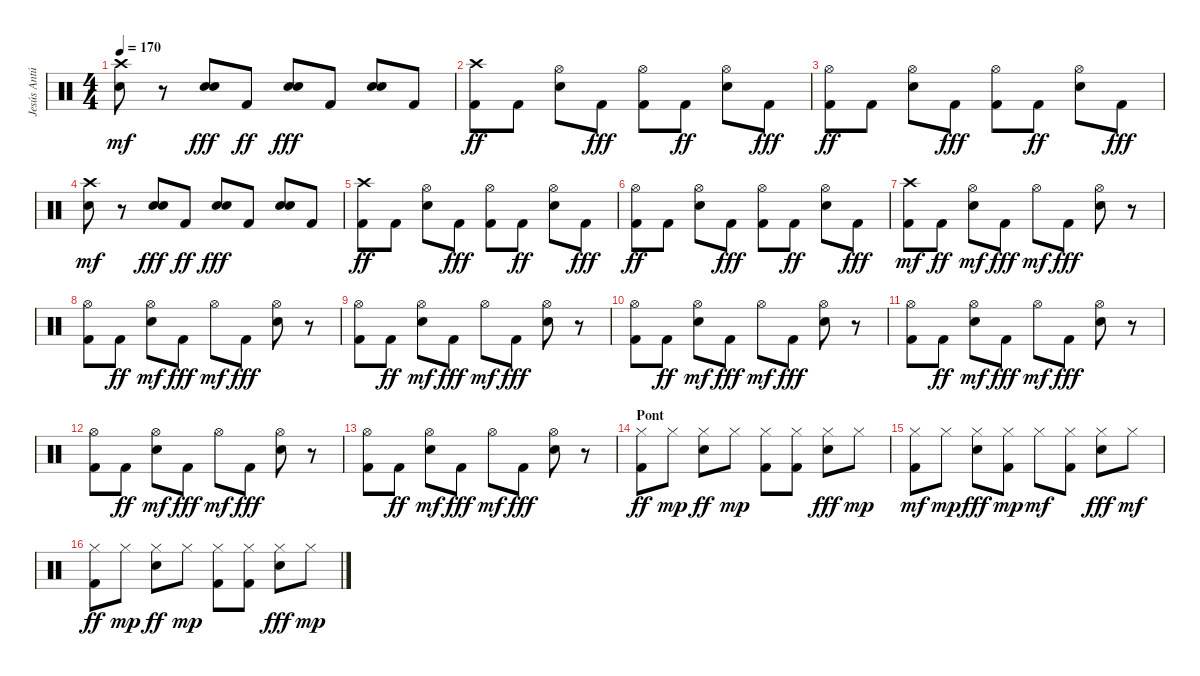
\track ("Jesús Antúnez (Bateria)" "Jesús Antú") {instrument percussion}
\staff {score}
\articulation defaults
\ts (4 4)
\tempo 170
\clef neutral
\ks c
("Electric Snare (hit)" "Crash high (hit)").8{dy mf} r.8 ("Electric Snare (hit)" "Electric Snare (hit)").8{dy fff} "Kick (hit) 2".8{dy ff} ("Electric Snare (hit)" "Electric Snare (hit)").8{dy fff} "Kick (hit) 2".8 ("Electric Snare (hit)" "Electric Snare (hit)").8 "Kick (hit) 2".8 |
("Kick (hit) 2" "Crash high (hit)").8{dy ff} "Kick (hit) 2".8 ("Electric Snare (hit)" "Hi-Hat (open)").8 "Kick (hit) 2".8{dy fff} ("Kick (hit) 2" "Hi-Hat (open)").8 "Kick (hit) 2".8{dy ff} ("Electric Snare (hit)" "Hi-Hat (open)").8 "Kick (hit) 2".8{dy fff} |
("Kick (hit) 2" "Hi-Hat (open)").8{dy ff} "Kick (hit) 2".8 ("Electric Snare (hit)" "Hi-Hat (open)").8 "Kick (hit) 2".8{dy fff} ("Kick (hit) 2" "Hi-Hat (open)").8 "Kick (hit) 2".8{dy ff} ("Electric Snare (hit)" "Hi-Hat (open)").8 "Kick (hit) 2".8{dy fff} |
("Electric Snare (hit)" "Crash high (hit)").8{dy mf} r.8 ("Electric Snare (hit)" "Electric Snare (hit)").8{dy fff} "Kick (hit) 2".8{dy ff} ("Electric Snare (hit)" "Electric Snare (hit)").8{dy fff} "Kick (hit) 2".8 ("Electric Snare (hit)" "Electric Snare (hit)").8 "Kick (hit) 2".8 |
("Kick (hit) 2" "Crash high (hit)").8{dy ff} "Kick (hit) 2".8 ("Electric Snare (hit)" "Hi-Hat (open)").8 "Kick (hit) 2".8{dy fff} ("Kick (hit) 2" "Hi-Hat (open)").8 "Kick (hit) 2".8{dy ff} ("Electric Snare (hit)" "Hi-Hat (open)").8 "Kick (hit) 2".8{dy fff} |
("Kick (hit) 2" "Hi-Hat (open)").8{dy ff} "Kick (hit) 2".8 ("Electric Snare (hit)" "Hi-Hat (open)").8 "Kick (hit) 2".8{dy fff} ("Kick (hit) 2" "Hi-Hat (open)").8 "Kick (hit) 2".8{dy ff} ("Electric Snare (hit)" "Hi-Hat (open)").8 "Kick (hit) 2".8{dy fff} |
("Kick (hit) 2" "Crash high (hit)").8{dy mf} "Kick (hit) 2".8{dy ff} ("Electric Snare (hit)" "Hi-Hat (open)").8{dy mf} "Kick (hit) 2".8{dy fff} "Hi-Hat (open)".8{dy mf} "Kick (hit) 2".8{dy fff} ("Electric Snare (hit)" "Hi-Hat (open)").8 r.8 |
("Kick (hit) 2" "Hi-Hat (open)").8 "Kick (hit) 2".8{dy ff} ("Electric Snare (hit)" "Hi-Hat (open)").8{dy mf} "Kick (hit) 2".8{dy fff} "Hi-Hat (open)".8{dy mf} "Kick (hit) 2".8{dy fff} ("Electric Snare (hit)" "Hi-Hat (open)").8 r.8 |
("Kick (hit) 2" "Hi-Hat (open)").8 "Kick (hit) 2".8{dy ff} ("Electric Snare (hit)" "Hi-Hat (open)").8{dy mf} "Kick (hit) 2".8{dy fff} "Hi-Hat (open)".8{dy mf} "Kick (hit) 2".8{dy fff} ("Electric Snare (hit)" "Hi-Hat (open)").8 r.8 |
("Kick (hit) 2" "Hi-Hat (open)").8 "Kick (hit) 2".8{dy ff} ("Electric Snare (hit)" "Hi-Hat (open)").8{dy mf} "Kick (hit) 2".8{dy fff} "Hi-Hat (open)".8{dy mf} "Kick (hit) 2".8{dy fff} ("Electric Snare (hit)" "Hi-Hat (open)").8 r.8 |
("Kick (hit) 2" "Hi-Hat (open)").8 "Kick (hit) 2".8{dy ff} ("Electric Snare (hit)" "Hi-Hat (open)").8{dy mf} "Kick (hit) 2".8{dy fff} "Hi-Hat (open)".8{dy mf} "Kick (hit) 2".8{dy fff} ("Electric Snare (hit)" "Hi-Hat (open)").8 r.8 |
("Kick (hit) 2" "Hi-Hat (open)").8 "Kick (hit) 2".8{dy ff} ("Electric Snare (hit)" "Hi-Hat (open)").8{dy mf} "Kick (hit) 2".8{dy fff} "Hi-Hat (open)".8{dy mf} "Kick (hit) 2".8{dy fff} ("Electric Snare (hit)" "Hi-Hat (open)").8 r.8 |
("Kick (hit) 2" "Hi-Hat (open)").8 "Kick (hit) 2".8{dy ff} ("Electric Snare (hit)" "Hi-Hat (open)").8{dy mf} "Kick (hit) 2".8{dy fff} "Hi-Hat (open)".8{dy mf} "Kick (hit) 2".8{dy fff} ("Electric Snare (hit)" "Hi-Hat (open)").8 r.8 |
\section ("" "Pont")
("Kick (hit) 2" "Hi-Hat (closed)").8{dy ff} "Hi-Hat (closed)".8{dy mp} ("Electric Snare (hit)" "Hi-Hat (closed)").8{dy ff} "Hi-Hat (closed)".8{dy mp} ("Kick (hit) 2" "Hi-Hat (closed)").8 ("Kick (hit) 2" "Hi-Hat (closed)").8 ("Electric Snare (hit)" "Hi-Hat (closed)").8{dy fff} "Hi-Hat (closed)".8{dy mp} |
("Kick (hit) 2" "Hi-Hat (closed)").8{dy mf} "Hi-Hat (closed)".8{dy mp} ("Electric Snare (hit)" "Hi-Hat (closed)").8{dy fff} ("Kick (hit) 2" "Hi-Hat (closed)").8{dy mp} "Hi-Hat (closed)".8{dy mf} ("Kick (hit) 2" "Hi-Hat (closed)").8 ("Electric Snare (hit)" "Hi-Hat (closed)").8{dy fff} "Hi-Hat (closed)".8{dy mf} |
("Kick (hit) 2" "Hi-Hat (closed)").8{dy ff} "Hi-Hat (closed)".8{dy mp} ("Electric Snare (hit)" "Hi-Hat (closed)").8{dy ff} "Hi-Hat (closed)".8{dy mp} ("Kick (hit) 2" "Hi-Hat (closed)").8 ("Kick (hit) 2" "Hi-Hat (closed)").8 ("Electric Snare (hit)" "Hi-Hat (closed)").8{dy fff} "Hi-Hat (closed)".8{dy mp}
